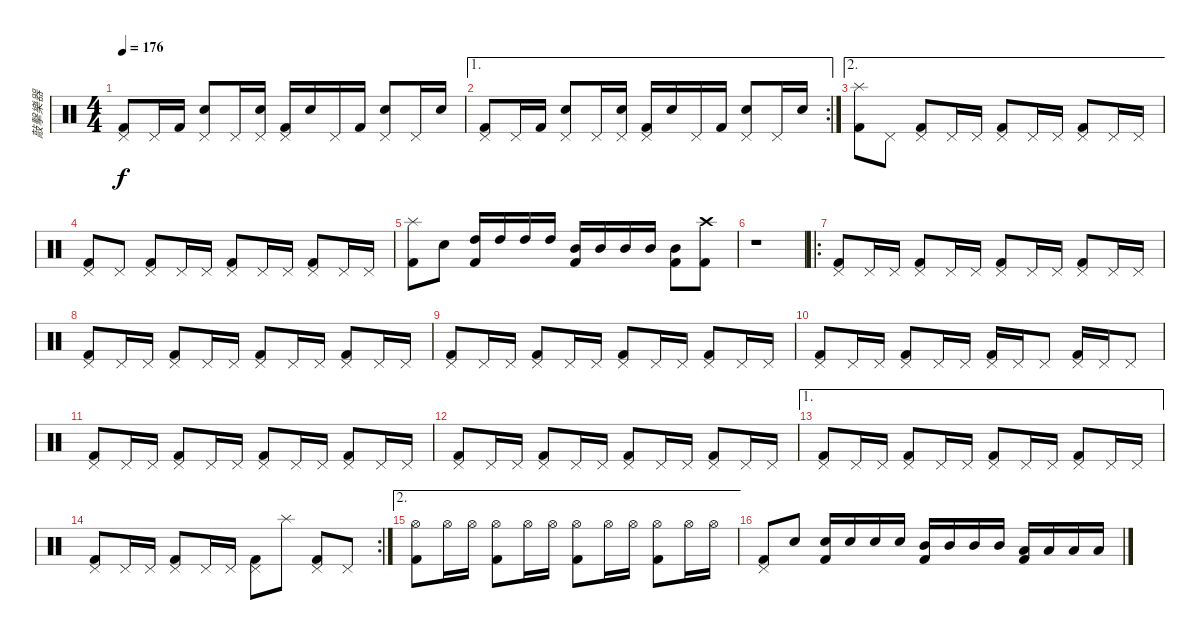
\track ("敲擊樂器" "敲擊樂器") {instrument percussion}
\staff {score}
\articulation defaults
\ts (4 4)
\tempo 176
\clef neutral
\ks c
("Pedal Hi-Hat (hit)" "Kick (hit) 2").8{dy f} "Pedal Hi-Hat (hit)".16 "Kick (hit) 2".16 ("Pedal Hi-Hat (hit)" "Snare (hit) 2").8 "Pedal Hi-Hat (hit)".16 ("Pedal Hi-Hat (hit)" "Snare (hit) 2").16 ("Pedal Hi-Hat (hit)" "Kick (hit) 2").16 "Snare (hit) 2".16 "Pedal Hi-Hat (hit)".16 "Kick (hit) 2".16 ("Pedal Hi-Hat (hit)" "Snare (hit) 2").8 "Pedal Hi-Hat (hit)".16 "Snare (hit) 2".16 |
\ae 1
\rc 2
("Pedal Hi-Hat (hit)" "Kick (hit) 2").8 "Pedal Hi-Hat (hit)".16 "Kick (hit) 2".16 ("Pedal Hi-Hat (hit)" "Snare (hit) 2").8 "Pedal Hi-Hat (hit)".16 ("Pedal Hi-Hat (hit)" "Snare (hit) 2").16 ("Pedal Hi-Hat (hit)" "Kick (hit) 2").16 "Snare (hit) 2".16 "Pedal Hi-Hat (hit)".16 "Kick (hit) 2".16 ("Pedal Hi-Hat (hit)" "Snare (hit) 2").8 "Pedal Hi-Hat (hit)".16 "Snare (hit) 2".16 |
\ae 2
("Splash (hit)" "Kick (hit) 2").8 "Pedal Hi-Hat (hit)".8 ("Pedal Hi-Hat (hit)" "Kick (hit) 2").8 "Pedal Hi-Hat (hit)".16 "Pedal Hi-Hat (hit)".16 ("Pedal Hi-Hat (hit)" "Kick (hit) 2").8 "Pedal Hi-Hat (hit)".16 "Pedal Hi-Hat (hit)".16 ("Pedal Hi-Hat (hit)" "Kick (hit) 2").8 "Pedal Hi-Hat (hit)".16 "Pedal Hi-Hat (hit)".16 |
("Pedal Hi-Hat (hit)" "Kick (hit) 2").8 "Pedal Hi-Hat (hit)".8 ("Pedal Hi-Hat (hit)" "Kick (hit) 2").8 "Pedal Hi-Hat (hit)".16 "Pedal Hi-Hat (hit)".16 ("Pedal Hi-Hat (hit)" "Kick (hit) 2").8 "Pedal Hi-Hat (hit)".16 "Pedal Hi-Hat (hit)".16 ("Pedal Hi-Hat (hit)" "Kick (hit) 2").8 "Pedal Hi-Hat (hit)".16 "Pedal Hi-Hat (hit)".16 |
("Kick (hit) 2" "Splash (hit)").8 "Snare (hit) 2".8 ("High Tom (hit)" "Kick (hit) 2").16 "High Tom (hit)".16 "High Tom (hit)".16 "High Tom (hit)".16 ("Mid Tom (hit)" "Kick (hit) 2").16 "Mid Tom (hit)".16 "Mid Tom (hit)".16 "Mid Tom (hit)".16 ("Mid Tom (hit)" "Kick (hit) 2").8 ("Crash high (hit)" "Kick (hit) 2").8 |
r.1 |
\ro
("Pedal Hi-Hat (hit)" "Kick (hit) 2").8 "Pedal Hi-Hat (hit)".16 "Pedal Hi-Hat (hit)".16 ("Pedal Hi-Hat (hit)" "Kick (hit) 2").8 "Pedal Hi-Hat (hit)".16 "Pedal Hi-Hat (hit)".16 ("Pedal Hi-Hat (hit)" "Kick (hit) 2").8 "Pedal Hi-Hat (hit)".16 "Pedal Hi-Hat (hit)".16 ("Pedal Hi-Hat (hit)" "Kick (hit) 2").8 "Pedal Hi-Hat (hit)".16 "Pedal Hi-Hat (hit)".16 |
("Kick (hit) 2" "Pedal Hi-Hat (hit)").8 "Pedal Hi-Hat (hit)".16 "Pedal Hi-Hat (hit)".16 ("Kick (hit) 2" "Pedal Hi-Hat (hit)").8 "Pedal Hi-Hat (hit)".16 "Pedal Hi-Hat (hit)".16 ("Kick (hit) 2" "Pedal Hi-Hat (hit)").8 "Pedal Hi-Hat (hit)".16 "Pedal Hi-Hat (hit)".16 ("Kick (hit) 2" "Pedal Hi-Hat (hit)").8 "Pedal Hi-Hat (hit)".16 "Pedal Hi-Hat (hit)".16 |
("Kick (hit) 2" "Pedal Hi-Hat (hit)").8 "Pedal Hi-Hat (hit)".16 "Pedal Hi-Hat (hit)".16 ("Kick (hit) 2" "Pedal Hi-Hat (hit)").8 "Pedal Hi-Hat (hit)".16 "Pedal Hi-Hat (hit)".16 ("Kick (hit) 2" "Pedal Hi-Hat (hit)").8 "Pedal Hi-Hat (hit)".16 "Pedal Hi-Hat (hit)".16 ("Kick (hit) 2" "Pedal Hi-Hat (hit)").8 "Pedal Hi-Hat (hit)".16 "Pedal Hi-Hat (hit)".16 |
("Pedal Hi-Hat (hit)" "Kick (hit) 2").8 "Pedal Hi-Hat (hit)".16 "Pedal Hi-Hat (hit)".16 ("Pedal Hi-Hat (hit)" "Kick (hit) 2").8 "Pedal Hi-Hat (hit)".16 "Pedal Hi-Hat (hit)".16 ("Pedal Hi-Hat (hit)" "Kick (hit) 2").16 "Pedal Hi-Hat (hit)".16 "Pedal Hi-Hat (hit)".8 ("Kick (hit) 2" "Pedal Hi-Hat (hit)").16 "Pedal Hi-Hat (hit)".16 "Pedal Hi-Hat (hit)".8 |
("Kick (hit) 2" "Pedal Hi-Hat (hit)").8 "Pedal Hi-Hat (hit)".16 "Pedal Hi-Hat (hit)".16 ("Kick (hit) 2" "Pedal Hi-Hat (hit)").8 "Pedal Hi-Hat (hit)".16 "Pedal Hi-Hat (hit)".16 ("Kick (hit) 2" "Pedal Hi-Hat (hit)").8 "Pedal Hi-Hat (hit)".16 "Pedal Hi-Hat (hit)".16 ("Kick (hit) 2" "Pedal Hi-Hat (hit)").8 "Pedal Hi-Hat (hit)".16 "Pedal Hi-Hat (hit)".16 |
("Kick (hit) 2" "Pedal Hi-Hat (hit)").8 "Pedal Hi-Hat (hit)".16 "Pedal Hi-Hat (hit)".16 ("Kick (hit) 2" "Pedal Hi-Hat (hit)").8 "Pedal Hi-Hat (hit)".16 "Pedal Hi-Hat (hit)".16 ("Kick (hit) 2" "Pedal Hi-Hat (hit)").8 "Pedal Hi-Hat (hit)".16 "Pedal Hi-Hat (hit)".16 ("Kick (hit) 2" "Pedal Hi-Hat (hit)").8 "Pedal Hi-Hat (hit)".16 "Pedal Hi-Hat (hit)".16 |
\ae 1
("Kick (hit) 2" "Pedal Hi-Hat (hit)").8 "Pedal Hi-Hat (hit)".16 "Pedal Hi-Hat (hit)".16 ("Kick (hit) 2" "Pedal Hi-Hat (hit)").8 "Pedal Hi-Hat (hit)".16 "Pedal Hi-Hat (hit)".16 ("Kick (hit) 2" "Pedal Hi-Hat (hit)").8 "Pedal Hi-Hat (hit)".16 "Pedal Hi-Hat (hit)".16 ("Kick (hit) 2" "Pedal Hi-Hat (hit)").8 "Pedal Hi-Hat (hit)".16 "Pedal Hi-Hat (hit)".16 |
\rc 2
("Pedal Hi-Hat (hit)" "Kick (hit) 2").8 "Pedal Hi-Hat (hit)".16 "Pedal Hi-Hat (hit)".16 ("Pedal Hi-Hat (hit)" "Kick (hit) 2").8 "Pedal Hi-Hat (hit)".16 "Pedal Hi-Hat (hit)".16 ("Pedal Hi-Hat (hit)" "Kick (hit) 2").8 "Splash (hit)".8 ("Pedal Hi-Hat (hit)" "Kick (hit) 2").8 "Pedal Hi-Hat (hit)".8 |
\ae 2
("Kick (hit) 2" "Hi-Hat (open)").8 "Hi-Hat (open)".16 "Hi-Hat (open)".16 ("Kick (hit) 2" "Hi-Hat (open)").8 "Hi-Hat (open)".16 "Hi-Hat (open)".16 ("Kick (hit) 2" "Hi-Hat (open)").8 "Hi-Hat (open)".16 "Hi-Hat (open)".16 ("Kick (hit) 2" "Hi-Hat (open)").8 "Hi-Hat (open)".16 "Hi-Hat (open)".16 |
("Kick (hit) 2" "Pedal Hi-Hat (hit)").8 "Snare (hit) 2".8 ("Snare (hit) 2" "Kick (hit) 2").16 "Snare (hit) 2".16 "Snare (hit) 2".16 "Snare (hit) 2".16 ("Mid Tom (hit)" "Kick (hit) 2").16 "Mid Tom (hit)".16 "Mid Tom (hit)".16 "Mid Tom (hit)".16 ("Low Tom (hit)" "Kick (hit) 2").16 "Low Tom (hit)".16 "Low Tom (hit)".16 "Low Tom (hit)".16
